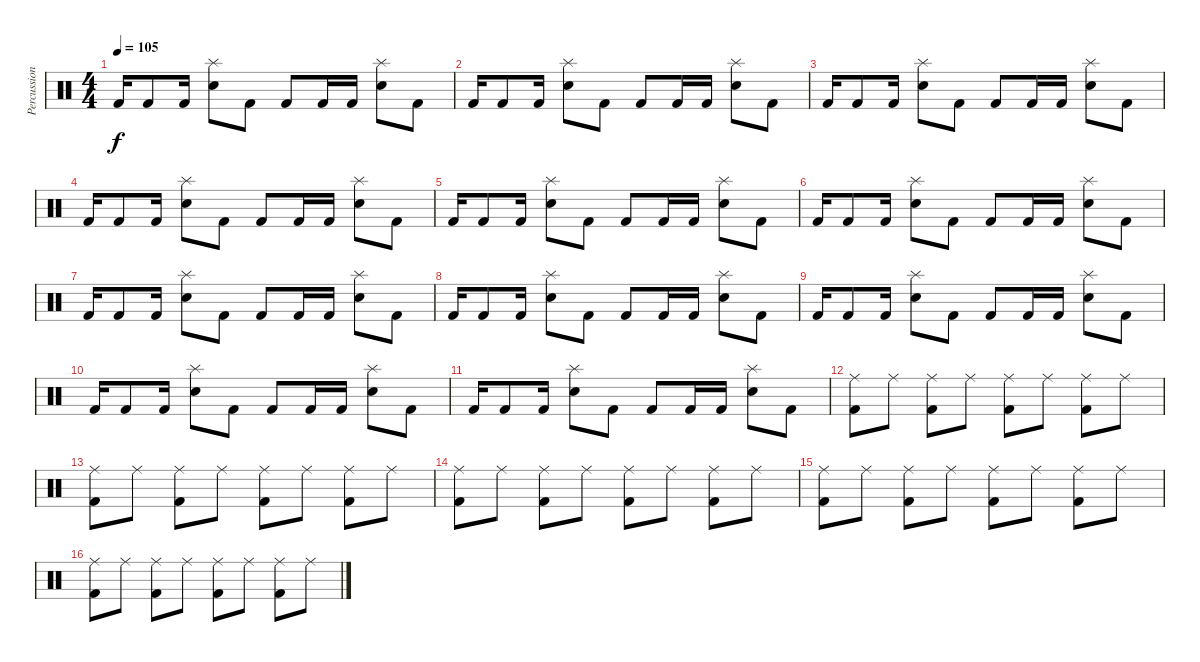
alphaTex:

\track ("Percussion" "Percussion") {instrument percussion}
\staff {score}
\articulation defaults
\ts (4 4)
\tempo 105
\clef neutral
\ks c "Kick (hit) 2".16{dy f} "Kick (hit) 2".8 "Kick (hit) 2".16
("Splash (hit)" "Electric Snare (hit)").8 "Kick (hit) 2".8 "Kick (hit) 2".8 "Kick (hit) 2".16 "Kick (hit) 2".16 ("Splash (hit)" "Electric Snare (hit)").8 "Kick (hit) 2".8 |
"Kick (hit) 2".16 "Kick (hit) 2".8 "Kick (hit) 2".16 ("Splash (hit)" "Electric Snare (hit)").8 "Kick (hit) 2".8 "Kick (hit) 2".8 "Kick (hit) 2".16 "Kick (hit) 2".16 ("Splash (hit)" "Electric Snare (hit)").8 "Kick (hit) 2".8 |
"Kick (hit) 2".16 "Kick (hit) 2".8 "Kick (hit) 2".16 ("Splash (hit)" "Electric Snare (hit)").8 "Kick (hit) 2".8 "Kick (hit) 2".8 "Kick (hit) 2".16 "Kick (hit) 2".16 ("Splash (hit)" "Electric Snare (hit)").8 "Kick (hit) 2".8 |
"Kick (hit) 2".16 "Kick (hit) 2".8 "Kick (hit) 2".16 ("Splash (hit)" "Electric Snare (hit)").8 "Kick (hit) 2".8 "Kick (hit) 2".8 "Kick (hit) 2".16 "Kick (hit) 2".16 ("Splash (hit)" "Electric Snare (hit)").8 "Kick (hit) 2".8 |
"Kick (hit) 2".16 "Kick (hit) 2".8 "Kick (hit) 2".16 ("Splash (hit)" "Electric Snare (hit)").8 "Kick (hit) 2".8 "Kick (hit) 2".8 "Kick (hit) 2".16 "Kick (hit) 2".16 ("Splash (hit)" "Electric Snare (hit)").8 "Kick (hit) 2".8 |
"Kick (hit) 2".16 "Kick (hit) 2".8 "Kick (hit) 2".16 ("Splash (hit)" "Electric Snare (hit)").8 "Kick (hit) 2".8 "Kick (hit) 2".8 "Kick (hit) 2".16 "Kick (hit) 2".16 ("Splash (hit)" "Electric Snare (hit)").8 "Kick (hit) 2".8 |
"Kick (hit) 2".16 "Kick (hit) 2".8 "Kick (hit) 2".16 ("Splash (hit)" "Electric Snare (hit)").8 "Kick (hit) 2".8 "Kick (hit) 2".8 "Kick (hit) 2".16 "Kick (hit) 2".16 ("Splash (hit)" "Electric Snare (hit)").8 "Kick (hit) 2".8 |
"Kick (hit) 2".16 "Kick (hit) 2".8 "Kick (hit) 2".16 ("Splash (hit)" "Electric Snare (hit)").8 "Kick (hit) 2".8 "Kick (hit) 2".8 "Kick (hit) 2".16 "Kick (hit) 2".16 ("Splash (hit)" "Electric Snare (hit)").8 "Kick (hit) 2".8 |
"Kick (hit) 2".16 "Kick (hit) 2".8 "Kick (hit) 2".16 ("Splash (hit)" "Electric Snare (hit)").8 "Kick (hit) 2".8 "Kick (hit) 2".8 "Kick (hit) 2".16 "Kick (hit) 2".16 ("Splash (hit)" "Electric Snare (hit)").8 "Kick (hit) 2".8 |
"Kick (hit) 2".16 "Kick (hit) 2".8 "Kick (hit) 2".16 ("Splash (hit)" "Electric Snare (hit)").8 "Kick (hit) 2".8 "Kick (hit) 2".8 "Kick (hit) 2".16 "Kick (hit) 2".16 ("Splash (hit)" "Electric Snare (hit)").8 "Kick (hit) 2".8 |
"Kick (hit) 2".16 "Kick (hit) 2".8 "Kick (hit) 2".16 ("Splash (hit)" "Electric Snare (hit)").8 "Kick (hit) 2".8 "Kick (hit) 2".8 "Kick (hit) 2".16 "Kick (hit) 2".16 ("Splash (hit)" "Electric Snare (hit)").8 "Kick (hit) 2".8 |
("Ride (middle)" "Kick (hit) 2").8 "Ride (middle)".8 ("Ride (middle)" "Kick (hit) 2").8 "Ride (middle)".8 ("Ride (middle)" "Kick (hit) 2").8 "Ride (middle)".8 ("Ride (middle)" "Kick (hit) 2").8 "Ride (middle)".8 |
("Ride (middle)" "Kick (hit) 2").8 "Ride (middle)".8 ("Ride (middle)" "Kick (hit) 2").8 "Ride (middle)".8 ("Ride (middle)" "Kick (hit) 2").8 "Ride (middle)".8 ("Ride (middle)" "Kick (hit) 2").8 "Ride (middle)".8 |
("Ride (middle)" "Kick (hit) 2").8 "Ride (middle)".8 ("Ride (middle)" "Kick (hit) 2").8 "Ride (middle)".8 ("Ride (middle)" "Kick (hit) 2").8 "Ride (middle)".8 ("Ride (middle)" "Kick (hit) 2").8 "Ride (middle)".8 |
("Ride (middle)" "Kick (hit) 2").8 "Ride (middle)".8 ("Ride (middle)" "Kick (hit) 2").8 "Ride (middle)".8 ("Ride (middle)" "Kick (hit) 2").8 "Ride (middle)".8 ("Ride (middle)" "Kick (hit) 2").8 "Ride (middle)".8 |
("Ride (middle)" "Kick (hit) 2").8 "Ride (middle)".8 ("Ride (middle)" "Kick (hit) 2").8 "Ride (middle)".8 ("Ride (middle)" "Kick (hit) 2").8 "Ride (middle)".8 ("Ride (middle)" "Kick (hit) 2").8 "Ride (middle)".8
